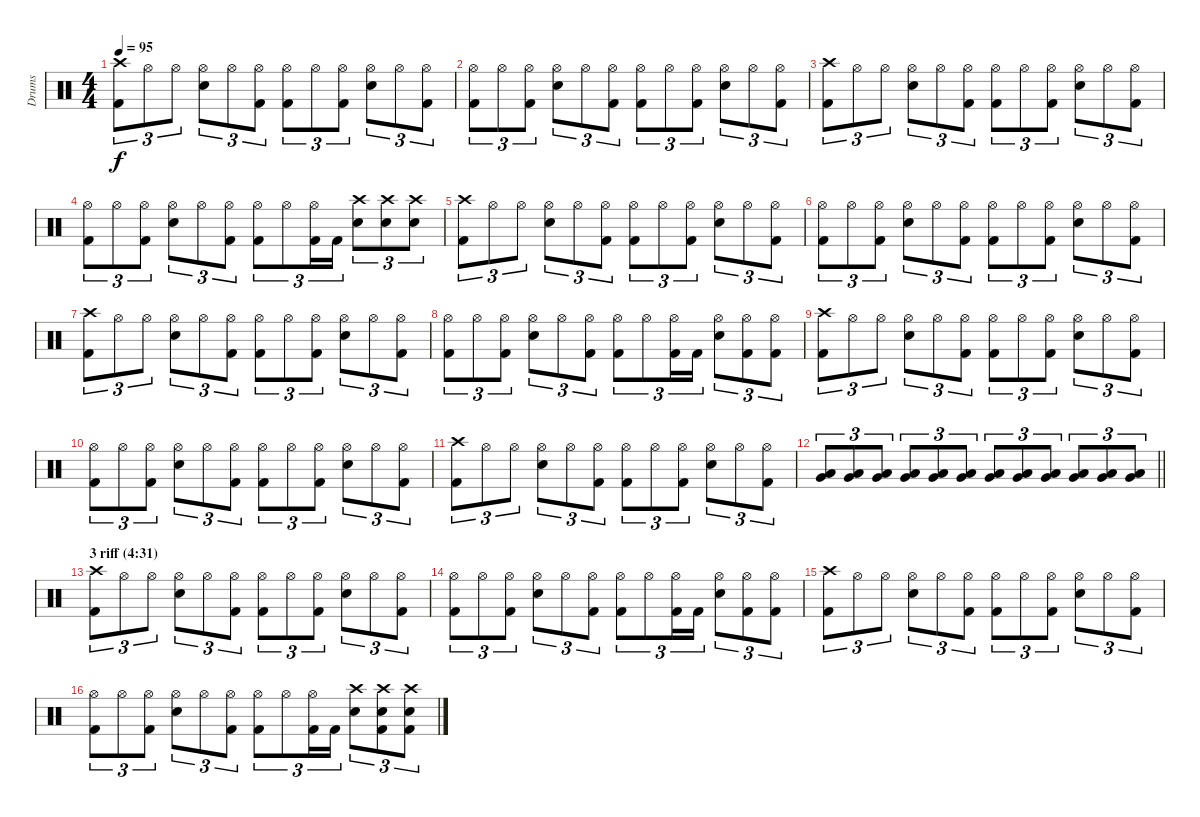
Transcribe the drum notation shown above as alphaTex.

\track ("Drums" "Drums") {instrument percussion}
\staff {score}
\articulation defaults
\ts (4 4)
\tempo 95
\clef neutral
\ks c
("Crash high (hit)" "Kick (hit) 2").8{tu (3 2) dy f} "Hi-Hat (open)".8{tu (3 2)} "Hi-Hat (open)".8{tu (3 2)} ("Hi-Hat (open)" "Snare (hit) 2").8{tu (3 2)} "Hi-Hat (open)".8{tu (3 2)} ("Hi-Hat (open)" "Kick (hit) 2").8{tu (3 2)} ("Hi-Hat (open)" "Kick (hit) 2").8{tu (3 2)} "Hi-Hat (open)".8{tu (3 2)} ("Hi-Hat (open)" "Kick (hit) 2").8{tu (3 2)} ("Hi-Hat (open)" "Snare (hit) 2").8{tu (3 2)} "Hi-Hat (open)".8{tu (3 2)} ("Hi-Hat (open)" "Kick (hit) 2").8{tu (3 2)} |
("Hi-Hat (open)" "Kick (hit) 2").8{tu (3 2)} "Hi-Hat (open)".8{tu (3 2)} ("Hi-Hat (open)" "Kick (hit) 2").8{tu (3 2)} ("Hi-Hat (open)" "Snare (hit) 2").8{tu (3 2)} "Hi-Hat (open)".8{tu (3 2)} ("Hi-Hat (open)" "Kick (hit) 2").8{tu (3 2)} ("Hi-Hat (open)" "Kick (hit) 2").8{tu (3 2)} "Hi-Hat (open)".8{tu (3 2)} ("Hi-Hat (open)" "Kick (hit) 2").8{tu (3 2)} ("Hi-Hat (open)" "Snare (hit) 2").8{tu (3 2)} "Hi-Hat (open)".8{tu (3 2)} ("Hi-Hat (open)" "Kick (hit) 2").8{tu (3 2)} |
("Crash high (hit)" "Kick (hit) 2").8{tu (3 2)} "Hi-Hat (open)".8{tu (3 2)} "Hi-Hat (open)".8{tu (3 2)} ("Hi-Hat (open)" "Snare (hit) 2").8{tu (3 2)} "Hi-Hat (open)".8{tu (3 2)} ("Hi-Hat (open)" "Kick (hit) 2").8{tu (3 2)} ("Hi-Hat (open)" "Kick (hit) 2").8{tu (3 2)} "Hi-Hat (open)".8{tu (3 2)} ("Hi-Hat (open)" "Kick (hit) 2").8{tu (3 2)} ("Hi-Hat (open)" "Snare (hit) 2").8{tu (3 2)} "Hi-Hat (open)".8{tu (3 2)} ("Hi-Hat (open)" "Kick (hit) 2").8{tu (3 2)} |
("Hi-Hat (open)" "Kick (hit) 2").8{tu (3 2)} "Hi-Hat (open)".8{tu (3 2)} ("Hi-Hat (open)" "Kick (hit) 2").8{tu (3 2)} ("Hi-Hat (open)" "Snare (hit) 2").8{tu (3 2)} "Hi-Hat (open)".8{tu (3 2)} ("Hi-Hat (open)" "Kick (hit) 2").8{tu (3 2)} ("Hi-Hat (open)" "Kick (hit) 2").8{tu (3 2)} "Hi-Hat (open)".8{tu (3 2)} ("Hi-Hat (open)" "Kick (hit) 2").16{tu (3 2)} "Kick (hit) 2".16{tu (3 2)} ("Crash high (hit)" "Snare (hit) 2").8{tu (3 2)} ("Crash high (hit)" "Snare (hit) 2").8{tu (3 2)} ("Crash high (hit)" "Snare (hit) 2").8{tu (3 2)} |
("Crash high (hit)" "Kick (hit) 2").8{tu (3 2)} "Hi-Hat (open)".8{tu (3 2)} "Hi-Hat (open)".8{tu (3 2)} ("Hi-Hat (open)" "Snare (hit) 2").8{tu (3 2)} "Hi-Hat (open)".8{tu (3 2)} ("Hi-Hat (open)" "Kick (hit) 2").8{tu (3 2)} ("Hi-Hat (open)" "Kick (hit) 2").8{tu (3 2)} "Hi-Hat (open)".8{tu (3 2)} ("Hi-Hat (open)" "Kick (hit) 2").8{tu (3 2)} ("Hi-Hat (open)" "Snare (hit) 2").8{tu (3 2)} "Hi-Hat (open)".8{tu (3 2)} ("Hi-Hat (open)" "Kick (hit) 2").8{tu (3 2)} |
("Hi-Hat (open)" "Kick (hit) 2").8{tu (3 2)} "Hi-Hat (open)".8{tu (3 2)} ("Hi-Hat (open)" "Kick (hit) 2").8{tu (3 2)} ("Hi-Hat (open)" "Snare (hit) 2").8{tu (3 2)} "Hi-Hat (open)".8{tu (3 2)} ("Hi-Hat (open)" "Kick (hit) 2").8{tu (3 2)} ("Hi-Hat (open)" "Kick (hit) 2").8{tu (3 2)} "Hi-Hat (open)".8{tu (3 2)} ("Hi-Hat (open)" "Kick (hit) 2").8{tu (3 2)} ("Hi-Hat (open)" "Snare (hit) 2").8{tu (3 2)} "Hi-Hat (open)".8{tu (3 2)} ("Hi-Hat (open)" "Kick (hit) 2").8{tu (3 2)} |
("Crash high (hit)" "Kick (hit) 2").8{tu (3 2)} "Hi-Hat (open)".8{tu (3 2)} "Hi-Hat (open)".8{tu (3 2)} ("Hi-Hat (open)" "Snare (hit) 2").8{tu (3 2)} "Hi-Hat (open)".8{tu (3 2)} ("Hi-Hat (open)" "Kick (hit) 2").8{tu (3 2)} ("Hi-Hat (open)" "Kick (hit) 2").8{tu (3 2)} "Hi-Hat (open)".8{tu (3 2)} ("Hi-Hat (open)" "Kick (hit) 2").8{tu (3 2)} ("Hi-Hat (open)" "Snare (hit) 2").8{tu (3 2)} "Hi-Hat (open)".8{tu (3 2)} ("Hi-Hat (open)" "Kick (hit) 2").8{tu (3 2)} |
("Hi-Hat (open)" "Kick (hit) 2").8{tu (3 2)} "Hi-Hat (open)".8{tu (3 2)} ("Hi-Hat (open)" "Kick (hit) 2").8{tu (3 2)} ("Hi-Hat (open)" "Snare (hit) 2").8{tu (3 2)} "Hi-Hat (open)".8{tu (3 2)} ("Hi-Hat (open)" "Kick (hit) 2").8{tu (3 2)} ("Hi-Hat (open)" "Kick (hit) 2").8{tu (3 2)} "Hi-Hat (open)".8{tu (3 2)} ("Hi-Hat (open)" "Kick (hit) 2").16{tu (3 2)} "Kick (hit) 2".16{tu (3 2)} ("Hi-Hat (open)" "Snare (hit) 2").8{tu (3 2)} ("Hi-Hat (open)" "Kick (hit) 2").8{tu (3 2)} ("Hi-Hat (open)" "Kick (hit) 2").8{tu (3 2)} |
("Crash high (hit)" "Kick (hit) 2").8{tu (3 2)} "Hi-Hat (open)".8{tu (3 2)} "Hi-Hat (open)".8{tu (3 2)} ("Hi-Hat (open)" "Snare (hit) 2").8{tu (3 2)} "Hi-Hat (open)".8{tu (3 2)} ("Hi-Hat (open)" "Kick (hit) 2").8{tu (3 2)} ("Hi-Hat (open)" "Kick (hit) 2").8{tu (3 2)} "Hi-Hat (open)".8{tu (3 2)} ("Hi-Hat (open)" "Kick (hit) 2").8{tu (3 2)} ("Hi-Hat (open)" "Snare (hit) 2").8{tu (3 2)} "Hi-Hat (open)".8{tu (3 2)} ("Hi-Hat (open)" "Kick (hit) 2").8{tu (3 2)} |
("Hi-Hat (open)" "Kick (hit) 2").8{tu (3 2)} "Hi-Hat (open)".8{tu (3 2)} ("Hi-Hat (open)" "Kick (hit) 2").8{tu (3 2)} ("Hi-Hat (open)" "Snare (hit) 2").8{tu (3 2)} "Hi-Hat (open)".8{tu (3 2)} ("Hi-Hat (open)" "Kick (hit) 2").8{tu (3 2)} ("Hi-Hat (open)" "Kick (hit) 2").8{tu (3 2)} "Hi-Hat (open)".8{tu (3 2)} ("Hi-Hat (open)" "Kick (hit) 2").8{tu (3 2)} ("Hi-Hat (open)" "Snare (hit) 2").8{tu (3 2)} "Hi-Hat (open)".8{tu (3 2)} ("Hi-Hat (open)" "Kick (hit) 2").8{tu (3 2)} |
("Crash high (hit)" "Kick (hit) 2").8{tu (3 2)} "Hi-Hat (open)".8{tu (3 2)} "Hi-Hat (open)".8{tu (3 2)} ("Hi-Hat (open)" "Snare (hit) 2").8{tu (3 2)} "Hi-Hat (open)".8{tu (3 2)} ("Hi-Hat (open)" "Kick (hit) 2").8{tu (3 2)} ("Hi-Hat (open)" "Kick (hit) 2").8{tu (3 2)} "Hi-Hat (open)".8{tu (3 2)} ("Hi-Hat (open)" "Kick (hit) 2").8{tu (3 2)} ("Hi-Hat (open)" "Snare (hit) 2").8{tu (3 2)} "Hi-Hat (open)".8{tu (3 2)} ("Hi-Hat (open)" "Kick (hit) 2").8{tu (3 2)} |
\barLineRight lightlight
("Very Low Tom (hit)" "Low Tom (hit)").8{tu (3 2)} ("Very Low Tom (hit)" "Low Tom (hit)").8{tu (3 2)} ("Very Low Tom (hit)" "Low Tom (hit)").8{tu (3 2)} ("Very Low Tom (hit)" "Low Tom (hit)").8{tu (3 2)} ("Very Low Tom (hit)" "Low Tom (hit)").8{tu (3 2)} ("Very Low Tom (hit)" "Low Tom (hit)").8{tu (3 2)} ("Very Low Tom (hit)" "Low Tom (hit)").8{tu (3 2)} ("Very Low Tom (hit)" "Low Tom (hit)").8{tu (3 2)} ("Very Low Tom (hit)" "Low Tom (hit)").8{tu (3 2)} ("Very Low Tom (hit)" "Low Tom (hit)").8{tu (3 2)} ("Very Low Tom (hit)" "Low Tom (hit)").8{tu (3 2)} ("Very Low Tom (hit)" "Low Tom (hit)").8{tu (3 2)} |
\section ("" "3 riff (4:31)")
("Crash high (hit)" "Kick (hit) 2").8{tu (3 2)} "Hi-Hat (open)".8{tu (3 2)} "Hi-Hat (open)".8{tu (3 2)} ("Hi-Hat (open)" "Snare (hit) 2").8{tu (3 2)} "Hi-Hat (open)".8{tu (3 2)} ("Hi-Hat (open)" "Kick (hit) 2").8{tu (3 2)} ("Hi-Hat (open)" "Kick (hit) 2").8{tu (3 2)} "Hi-Hat (open)".8{tu (3 2)} ("Hi-Hat (open)" "Kick (hit) 2").8{tu (3 2)} ("Hi-Hat (open)" "Snare (hit) 2").8{tu (3 2)} "Hi-Hat (open)".8{tu (3 2)} ("Hi-Hat (open)" "Kick (hit) 2").8{tu (3 2)} |
("Hi-Hat (open)" "Kick (hit) 2").8{tu (3 2)} "Hi-Hat (open)".8{tu (3 2)} ("Hi-Hat (open)" "Kick (hit) 2").8{tu (3 2)} ("Hi-Hat (open)" "Snare (hit) 2").8{tu (3 2)} "Hi-Hat (open)".8{tu (3 2)} ("Hi-Hat (open)" "Kick (hit) 2").8{tu (3 2)} ("Hi-Hat (open)" "Kick (hit) 2").8{tu (3 2)} "Hi-Hat (open)".8{tu (3 2)} ("Hi-Hat (open)" "Kick (hit) 2").16{tu (3 2)} "Kick (hit) 2".16{tu (3 2)} ("Hi-Hat (open)" "Snare (hit) 2").8{tu (3 2)} ("Hi-Hat (open)" "Kick (hit) 2").8{tu (3 2)} ("Hi-Hat (open)" "Kick (hit) 2").8{tu (3 2)} |
("Crash high (hit)" "Kick (hit) 2").8{tu (3 2)} "Hi-Hat (open)".8{tu (3 2)} "Hi-Hat (open)".8{tu (3 2)} ("Hi-Hat (open)" "Snare (hit) 2").8{tu (3 2)} "Hi-Hat (open)".8{tu (3 2)} ("Hi-Hat (open)" "Kick (hit) 2").8{tu (3 2)} ("Hi-Hat (open)" "Kick (hit) 2").8{tu (3 2)} "Hi-Hat (open)".8{tu (3 2)} ("Hi-Hat (open)" "Kick (hit) 2").8{tu (3 2)} ("Hi-Hat (open)" "Snare (hit) 2").8{tu (3 2)} "Hi-Hat (open)".8{tu (3 2)} ("Hi-Hat (open)" "Kick (hit) 2").8{tu (3 2)} |
("Hi-Hat (open)" "Kick (hit) 2").8{tu (3 2)} "Hi-Hat (open)".8{tu (3 2)} ("Hi-Hat (open)" "Kick (hit) 2").8{tu (3 2)} ("Hi-Hat (open)" "Snare (hit) 2").8{tu (3 2)} "Hi-Hat (open)".8{tu (3 2)} ("Hi-Hat (open)" "Kick (hit) 2").8{tu (3 2)} ("Hi-Hat (open)" "Kick (hit) 2").8{tu (3 2)} "Hi-Hat (open)".8{tu (3 2)} ("Hi-Hat (open)" "Kick (hit) 2").16{tu (3 2)} "Kick (hit) 2".16{tu (3 2)} ("Crash high (hit)" "Snare (hit) 2").8{tu (3 2)} ("Crash high (hit)" "Snare (hit) 2" "Kick (hit) 2").8{tu (3 2)} ("Crash high (hit)" "Snare (hit) 2" "Kick (hit) 2").8{tu (3 2)}
